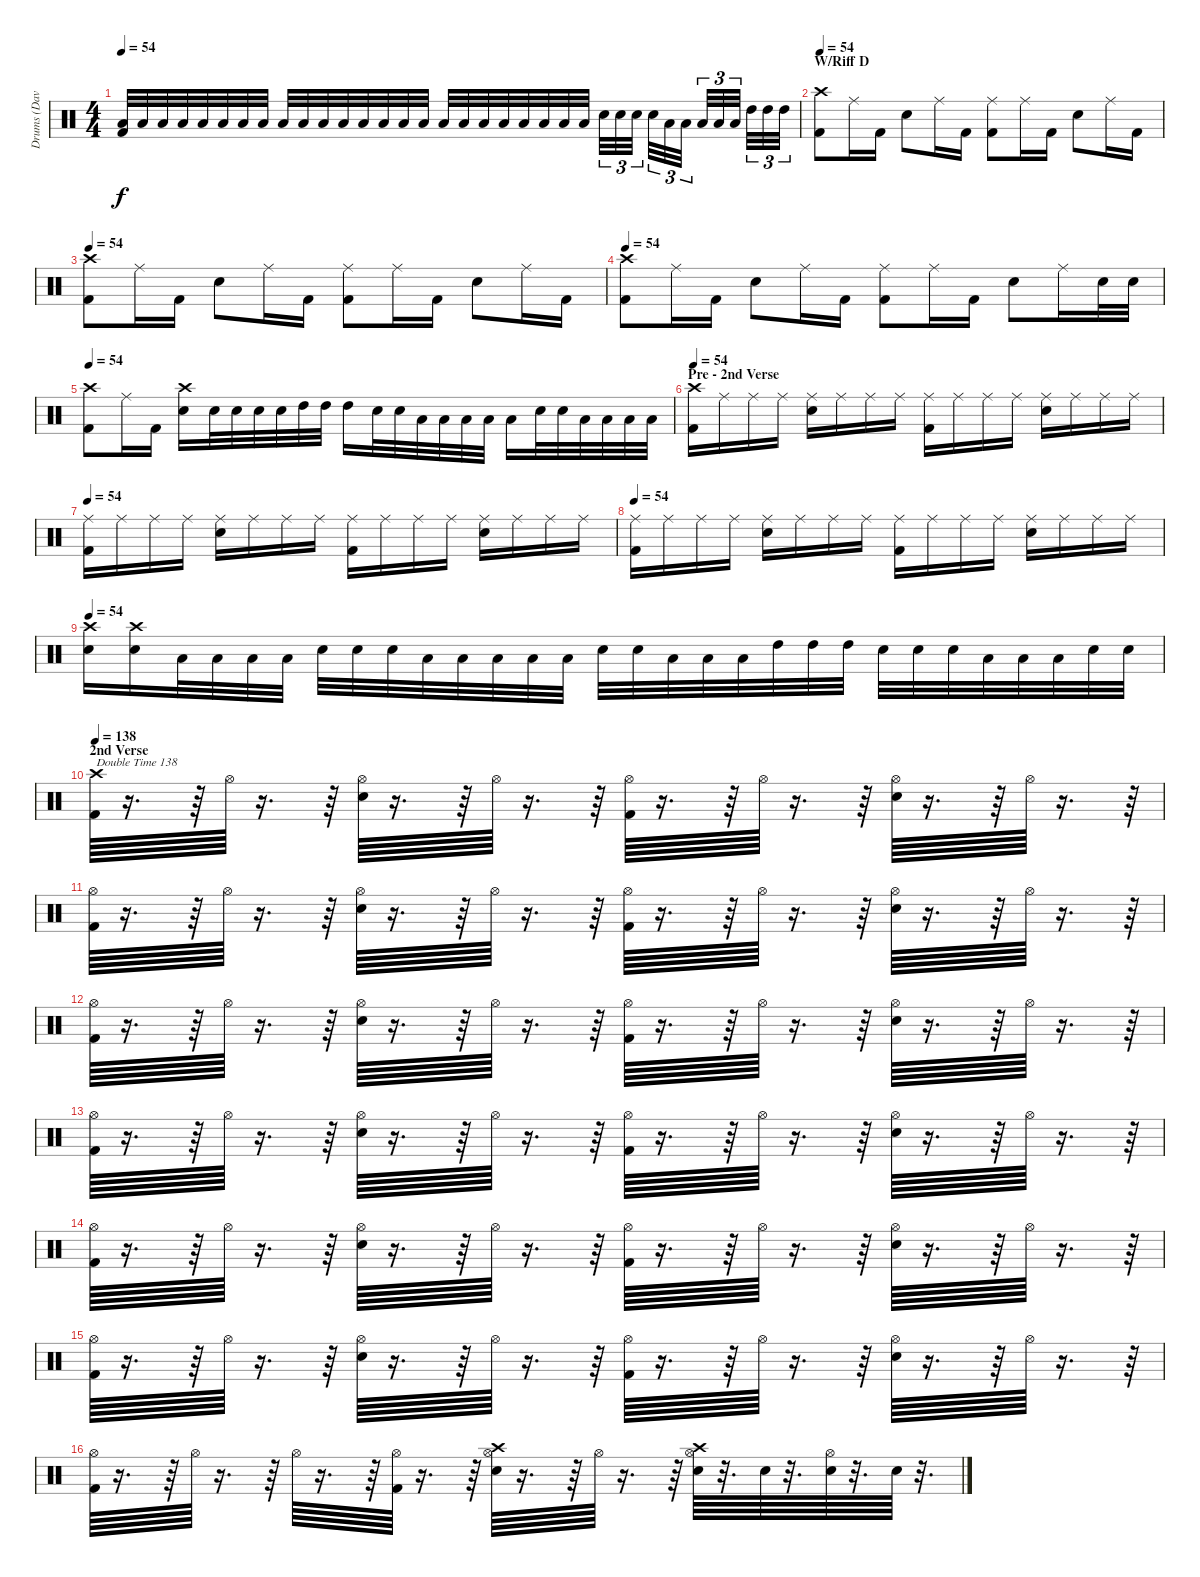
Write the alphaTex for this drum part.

\track ("Drums (Dave)" "Drums (Dav") {instrument percussion}
\staff {score}
\articulation defaults
\ts (4 4)
\tempo 54
\clef neutral
\ks c
("Low Floor Tom (hit)" "Kick (hit) 2").32{dy f} "Low Floor Tom (hit)".32 "Low Floor Tom (hit)".32 "Low Floor Tom (hit)".32 "Low Floor Tom (hit)".32 "Low Floor Tom (hit)".32 "Low Floor Tom (hit)".32 "Low Floor Tom (hit)".32 "Low Floor Tom (hit)".32 "Low Floor Tom (hit)".32 "Low Floor Tom (hit)".32 "Low Floor Tom (hit)".32 "Low Floor Tom (hit)".32 "Low Floor Tom (hit)".32 "Low Floor Tom (hit)".32 "Low Floor Tom (hit)".32 "Low Floor Tom (hit)".32 "Low Floor Tom (hit)".32 "Low Floor Tom (hit)".32 "Low Floor Tom (hit)".32 "Low Floor Tom (hit)".32 "Low Floor Tom (hit)".32 "Low Floor Tom (hit)".32 "Low Floor Tom (hit)".32 "Snare (hit) 2".32{tu (3 2)} "Snare (hit) 2".32{tu (3 2)} "Snare (hit) 2".32{tu (3 2)} "Snare (hit) 2".32{tu (3 2)} "Low Tom (hit)".32{tu (3 2)} "Low Tom (hit)".32{tu (3 2)} "Low Tom (hit)".32{tu (3 2)} "Low Tom (hit)".32{tu (3 2)} "Low Tom (hit)".32{tu (3 2)} "High Tom (hit)".32{tu (3 2)} "High Tom (hit)".32{tu (3 2)} "High Tom (hit)".32{tu (3 2)} |
\section ("" "W/Riff D")
\tempo 54
("Kick (hit) 2" "Crash high (hit)").8 "Ride (middle)".16 "Kick (hit) 2".16 "Snare (hit) 2".8 "Ride (middle)".16 "Kick (hit) 2".16 ("Kick (hit) 2" "Ride (middle)").8 "Ride (middle)".16 "Kick (hit) 2".16 "Snare (hit) 2".8 "Ride (middle)".16 "Kick (hit) 2".16 |
\tempo 54
("Kick (hit) 2" "Crash high (hit)").8 "Ride (middle)".16 "Kick (hit) 2".16 "Snare (hit) 2".8 "Ride (middle)".16 "Kick (hit) 2".16 ("Kick (hit) 2" "Ride (middle)").8 "Ride (middle)".16 "Kick (hit) 2".16 "Snare (hit) 2".8 "Ride (middle)".16 "Kick (hit) 2".16 |
\tempo 54
("Kick (hit) 2" "Crash high (hit)").8 "Ride (middle)".16 "Kick (hit) 2".16 "Snare (hit) 2".8 "Ride (middle)".16 "Kick (hit) 2".16 ("Kick (hit) 2" "Ride (middle)").8 "Ride (middle)".16 "Kick (hit) 2".16 "Snare (hit) 2".8 "Ride (middle)".16 "Snare (hit) 2".32 "Snare (hit) 2".32 |
\tempo 54
("Kick (hit) 2" "Crash high (hit)").8 "Ride (middle)".16 "Kick (hit) 2".16 ("Snare (hit) 2" "Crash high (hit)").16 "Snare (hit) 2".32 "Snare (hit) 2".32 "Snare (hit) 2".32 "Snare (hit) 2".32 "High Tom (hit)".32 "High Tom (hit)".32 "High Tom (hit)".16 "Snare (hit) 2".32 "Snare (hit) 2".32 "Low Tom (hit)".32 "Low Tom (hit)".32 "Low Tom (hit)".32 "Low Tom (hit)".32 "Low Tom (hit)".16 "Snare (hit) 2".32 "Snare (hit) 2".32 "Low Floor Tom (hit)".32 "Low Floor Tom (hit)".32 "Low Floor Tom (hit)".32 "Low Floor Tom (hit)".32 |
\section ("" "Pre - 2nd Verse")
\tempo 54
("Kick (hit) 2" "Crash high (hit)").16 "Ride (middle)".16 "Ride (middle)".16 "Ride (middle)".16 ("Ride (middle)" "Snare (hit) 2").16 "Ride (middle)".16 "Ride (middle)".16 "Ride (middle)".16 ("Kick (hit) 2" "Ride (middle)").16 "Ride (middle)".16 "Ride (middle)".16 "Ride (middle)".16 ("Ride (middle)" "Snare (hit) 2").16 "Ride (middle)".16 "Ride (middle)".16 "Ride (middle)".16 |
\tempo 54
("Kick (hit) 2" "Ride (middle)").16 "Ride (middle)".16 "Ride (middle)".16 "Ride (middle)".16 ("Ride (middle)" "Snare (hit) 2").16 "Ride (middle)".16 "Ride (middle)".16 "Ride (middle)".16 ("Kick (hit) 2" "Ride (middle)").16 "Ride (middle)".16 "Ride (middle)".16 "Ride (middle)".16 ("Ride (middle)" "Snare (hit) 2").16 "Ride (middle)".16 "Ride (middle)".16 "Ride (middle)".16 |
\tempo 54
("Kick (hit) 2" "Ride (middle)").16 "Ride (middle)".16 "Ride (middle)".16 "Ride (middle)".16 ("Ride (middle)" "Snare (hit) 2").16 "Ride (middle)".16 "Ride (middle)".16 "Ride (middle)".16 ("Kick (hit) 2" "Ride (middle)").16 "Ride (middle)".16 "Ride (middle)".16 "Ride (middle)".16 ("Ride (middle)" "Snare (hit) 2").16 "Ride (middle)".16 "Ride (middle)".16 "Ride (middle)".16 |
\tempo 54
("Snare (hit) 2" "Crash high (hit)").16 ("Snare (hit) 2" "Crash high (hit)").16 "Low Floor Tom (hit)".32 "Low Floor Tom (hit)".32 "Low Floor Tom (hit)".32 "Low Floor Tom (hit)".32 "Snare (hit) 2".32 "Snare (hit) 2".32 "Snare (hit) 2".32 "Low Tom (hit)".32 "Low Tom (hit)".32 "Low Tom (hit)".32 "Low Tom (hit)".32 "Low Tom (hit)".32 "Snare (hit) 2".32 "Snare (hit) 2".32 "Low Floor Tom (hit)".32 "Low Floor Tom (hit)".32 "Low Floor Tom (hit)".32 "High Tom (hit)".32 "High Tom (hit)".32 "High Tom (hit)".32 "Snare (hit) 2".32 "Snare (hit) 2".32 "Snare (hit) 2".32 "Low Floor Tom (hit)".32 "Low Floor Tom (hit)".32 "Low Floor Tom (hit)".32 "Snare (hit) 2".32 "Snare (hit) 2".32 |
\section ("" "2nd Verse")
\tempo 138
("Kick (hit) 2" "Crash high (hit)").64{txt "Double Time 138"} r.16{d} r.64 "Hi-Hat (open)".64 r.16{d} r.64 ("Hi-Hat (open)" "Snare (hit) 2").64 r.16{d} r.64 "Hi-Hat (open)".64 r.16{d} r.64 ("Hi-Hat (open)" "Kick (hit) 2").64 r.16{d} r.64 "Hi-Hat (open)".64 r.16{d} r.64 ("Hi-Hat (open)" "Snare (hit) 2").64 r.16{d} r.64 "Hi-Hat (open)".64 r.16{d} r.64 |
("Hi-Hat (open)" "Kick (hit) 2").64 r.16{d} r.64 "Hi-Hat (open)".64 r.16{d} r.64 ("Hi-Hat (open)" "Snare (hit) 2").64 r.16{d} r.64 "Hi-Hat (open)".64 r.16{d} r.64 ("Hi-Hat (open)" "Kick (hit) 2").64 r.16{d} r.64 "Hi-Hat (open)".64 r.16{d} r.64 ("Hi-Hat (open)" "Snare (hit) 2").64 r.16{d} r.64 "Hi-Hat (open)".64 r.16{d} r.64 |
("Hi-Hat (open)" "Kick (hit) 2").64 r.16{d} r.64 "Hi-Hat (open)".64 r.16{d} r.64 ("Hi-Hat (open)" "Snare (hit) 2").64 r.16{d} r.64 "Hi-Hat (open)".64 r.16{d} r.64 ("Hi-Hat (open)" "Kick (hit) 2").64 r.16{d} r.64 "Hi-Hat (open)".64 r.16{d} r.64 ("Hi-Hat (open)" "Snare (hit) 2").64 r.16{d} r.64 "Hi-Hat (open)".64 r.16{d} r.64 |
("Hi-Hat (open)" "Kick (hit) 2").64 r.16{d} r.64 "Hi-Hat (open)".64 r.16{d} r.64 ("Hi-Hat (open)" "Snare (hit) 2").64 r.16{d} r.64 "Hi-Hat (open)".64 r.16{d} r.64 ("Hi-Hat (open)" "Kick (hit) 2").64 r.16{d} r.64 "Hi-Hat (open)".64 r.16{d} r.64 ("Hi-Hat (open)" "Snare (hit) 2").64 r.16{d} r.64 "Hi-Hat (open)".64 r.16{d} r.64 |
("Hi-Hat (open)" "Kick (hit) 2").64 r.16{d} r.64 "Hi-Hat (open)".64 r.16{d} r.64 ("Hi-Hat (open)" "Snare (hit) 2").64 r.16{d} r.64 "Hi-Hat (open)".64 r.16{d} r.64 ("Hi-Hat (open)" "Kick (hit) 2").64 r.16{d} r.64 "Hi-Hat (open)".64 r.16{d} r.64 ("Hi-Hat (open)" "Snare (hit) 2").64 r.16{d} r.64 "Hi-Hat (open)".64 r.16{d} r.64 |
("Hi-Hat (open)" "Kick (hit) 2").64 r.16{d} r.64 "Hi-Hat (open)".64 r.16{d} r.64 ("Hi-Hat (open)" "Snare (hit) 2").64 r.16{d} r.64 "Hi-Hat (open)".64 r.16{d} r.64 ("Hi-Hat (open)" "Kick (hit) 2").64 r.16{d} r.64 "Hi-Hat (open)".64 r.16{d} r.64 ("Hi-Hat (open)" "Snare (hit) 2").64 r.16{d} r.64 "Hi-Hat (open)".64 r.16{d} r.64 |
("Hi-Hat (open)" "Kick (hit) 2").64 r.16{d} r.64 "Hi-Hat (open)".64 r.16{d} r.64 "Hi-Hat (open)".64 r.16{d} r.64 ("Hi-Hat (open)" "Kick (hit) 2").64 r.16{d} r.64 ("Hi-Hat (open)" "Snare (hit) 2" "Crash high (hit)").64 r.16{d} r.64 "Hi-Hat (open)".64 r.16{d} r.64 ("Hi-Hat (open)" "Snare (hit) 2" "Crash high (hit)").64 r.32{d} "Snare (hit) 2".64 r.32{d} ("Hi-Hat (open)" "Snare (hit) 2").64 r.32{d} "Snare (hit) 2".64 r.32{d}
